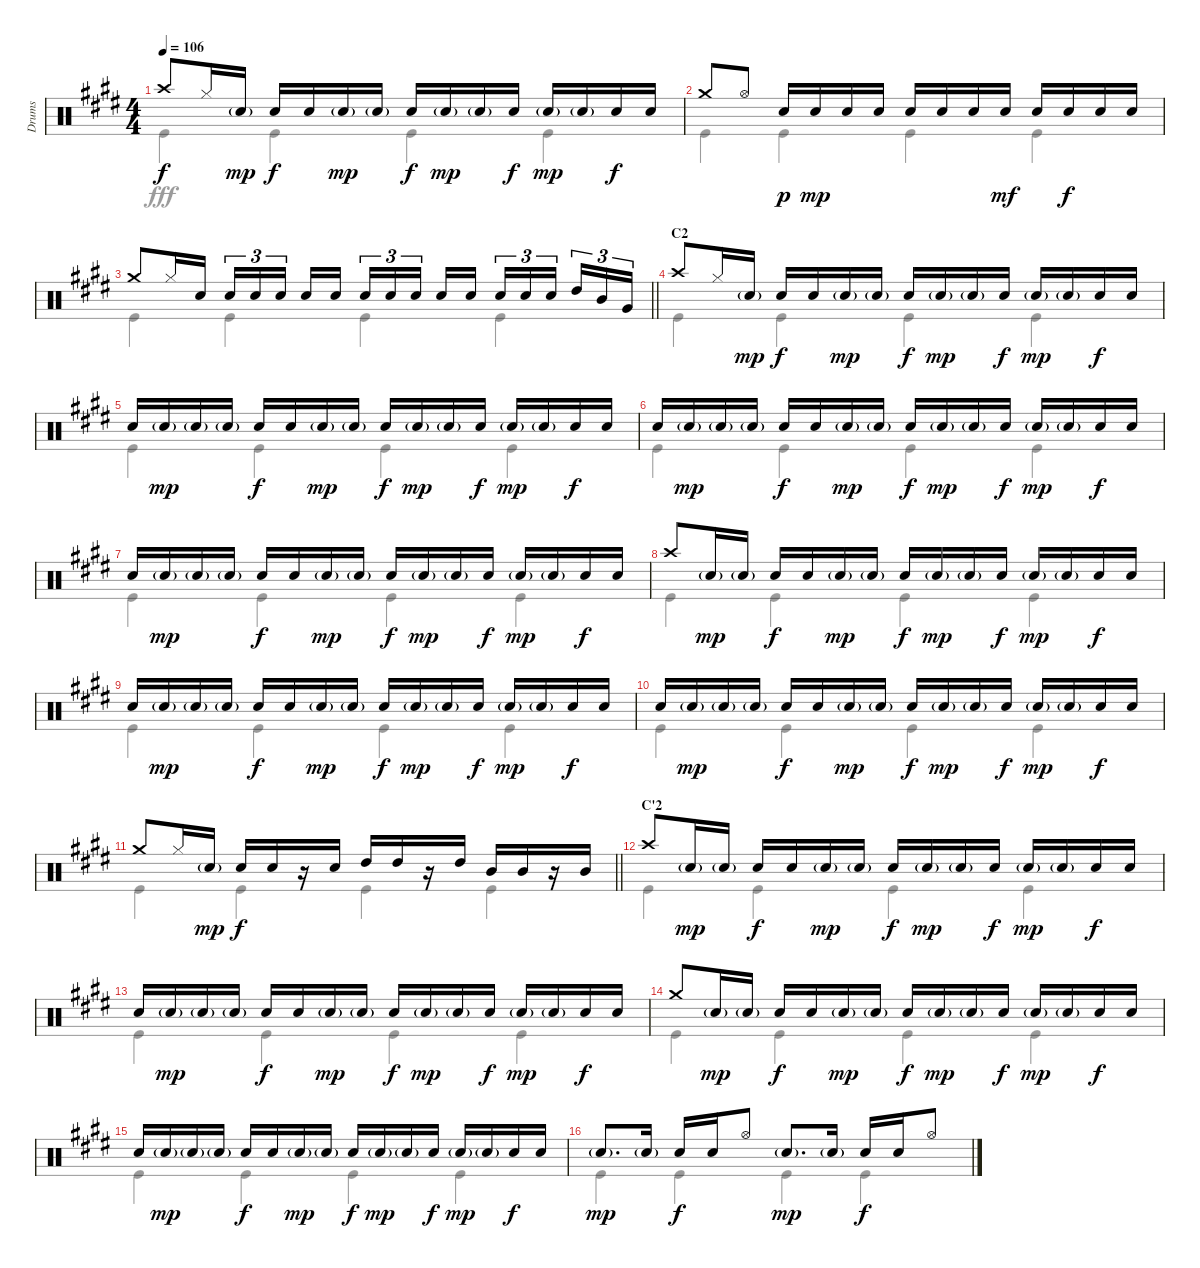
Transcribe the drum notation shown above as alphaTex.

\track ("Drums" "Drums") {instrument percussion}
\staff {score}
\articulation defaults
\voice
\ts (4 4)
\tempo 106
\clef neutral
\ks e "Crash high (hit)".8{dy f} "Hi-Hat (closed)".16 "Snare (hit) 2"{g}.16{dy mp} "Snare (hit) 2".16{dy f} "Snare (hit) 2".16 "Snare (hit) 2"{g}.16{dy mp} "Snare (hit) 2"{g}.16 "Snare (hit) 2".16{dy f} "Snare (hit) 2"{g}.16{dy mp} "Snare (hit) 2"{g}.16 "Snare (hit) 2".16{dy f} "Snare (hit) 2"{g}.16{dy mp} "Snare (hit) 2"{g}.16 "Snare (hit) 2".16{dy f} "Snare (hit) 2".16
|
"Crash medium (hit)".8 "Hi-Hat (open)".8 "Snare (hit) 2".16{dy p} "Snare (hit) 2".16{dy mp} "Snare (hit) 2".16 "Snare (hit) 2".16 "Snare (hit) 2".16 "Snare (hit) 2".16 "Snare (hit) 2".16 "Snare (hit) 2".16{dy mf} "Snare (hit) 2".16 "Snare (hit) 2".16{dy f} "Snare (hit) 2".16 "Snare (hit) 2".16 |
\barLineRight lightlight "Crash medium (hit)".8 "Hi-Hat (closed)".16 "Snare (hit) 2".16 "Snare (hit) 2".16{tu (3 2)} "Snare (hit) 2".16{tu (3 2)} "Snare (hit) 2".16{tu (3 2) beam splitsecondary} "Snare (hit) 2".16 "Snare (hit) 2".16 "Snare (hit) 2".16{tu (3 2)} "Snare (hit) 2".16{tu (3 2)} "Snare (hit) 2".16{tu (3 2) beam splitsecondary} "Snare (hit) 2".16 "Snare (hit) 2".16 "Snare (hit) 2".16{tu (3 2)} "Snare (hit) 2".16{tu (3 2)} "Snare (hit) 2".16{tu (3 2) beam splitsecondary} "High Tom (hit)".16{tu (3 2)} "Mid Tom (hit)".16{tu (3 2)} "Very Low Tom (hit)".16{tu (3 2)}
|
\section ("" "C2")
"Crash high (hit)".8 "Hi-Hat (closed)".16 "Snare (hit) 2"{g}.16{dy mp} "Snare (hit) 2".16{dy f} "Snare (hit) 2".16 "Snare (hit) 2"{g}.16{dy mp} "Snare (hit) 2"{g}.16 "Snare (hit) 2".16{dy f} "Snare (hit) 2"{g}.16{dy mp} "Snare (hit) 2"{g}.16 "Snare (hit) 2".16{dy f} "Snare (hit) 2"{g}.16{dy mp} "Snare (hit) 2"{g}.16 "Snare (hit) 2".16{dy f} "Snare (hit) 2".16 |
"Snare (hit) 2".16 "Snare (hit) 2"{g}.16{dy mp} "Snare (hit) 2"{g}.16 "Snare (hit) 2"{g}.16 "Snare (hit) 2".16{dy f} "Snare (hit) 2".16 "Snare (hit) 2"{g}.16{dy mp} "Snare (hit) 2"{g}.16 "Snare (hit) 2".16{dy f} "Snare (hit) 2"{g}.16{dy mp} "Snare (hit) 2"{g}.16 "Snare (hit) 2".16{dy f} "Snare (hit) 2"{g}.16{dy mp} "Snare (hit) 2"{g}.16 "Snare (hit) 2".16{dy f} "Snare (hit) 2".16 |
"Snare (hit) 2".16 "Snare (hit) 2"{g}.16{dy mp} "Snare (hit) 2"{g}.16 "Snare (hit) 2"{g}.16 "Snare (hit) 2".16{dy f} "Snare (hit) 2".16 "Snare (hit) 2"{g}.16{dy mp} "Snare (hit) 2"{g}.16 "Snare (hit) 2".16{dy f} "Snare (hit) 2"{g}.16{dy mp} "Snare (hit) 2"{g}.16 "Snare (hit) 2".16{dy f} "Snare (hit) 2"{g}.16{dy mp} "Snare (hit) 2"{g}.16 "Snare (hit) 2".16{dy f} "Snare (hit) 2".16 |
"Snare (hit) 2".16 "Snare (hit) 2"{g}.16{dy mp} "Snare (hit) 2"{g}.16 "Snare (hit) 2"{g}.16 "Snare (hit) 2".16{dy f} "Snare (hit) 2".16 "Snare (hit) 2"{g}.16{dy mp} "Snare (hit) 2"{g}.16 "Snare (hit) 2".16{dy f} "Snare (hit) 2"{g}.16{dy mp} "Snare (hit) 2"{g}.16 "Snare (hit) 2".16{dy f} "Snare (hit) 2"{g}.16{dy mp} "Snare (hit) 2"{g}.16 "Snare (hit) 2".16{dy f} "Snare (hit) 2".16 |
"Crash high (hit)".8 "Snare (hit) 2"{g}.16{dy mp} "Snare (hit) 2"{g}.16 "Snare (hit) 2".16{dy f} "Snare (hit) 2".16 "Snare (hit) 2"{g}.16{dy mp} "Snare (hit) 2"{g}.16 "Snare (hit) 2".16{dy f} "Snare (hit) 2"{g}.16{dy mp} "Snare (hit) 2"{g}.16 "Snare (hit) 2".16{dy f} "Snare (hit) 2"{g}.16{dy mp} "Snare (hit) 2"{g}.16 "Snare (hit) 2".16{dy f} "Snare (hit) 2".16 |
"Snare (hit) 2".16 "Snare (hit) 2"{g}.16{dy mp} "Snare (hit) 2"{g}.16 "Snare (hit) 2"{g}.16 "Snare (hit) 2".16{dy f} "Snare (hit) 2".16 "Snare (hit) 2"{g}.16{dy mp} "Snare (hit) 2"{g}.16 "Snare (hit) 2".16{dy f} "Snare (hit) 2"{g}.16{dy mp} "Snare (hit) 2"{g}.16 "Snare (hit) 2".16{dy f} "Snare (hit) 2"{g}.16{dy mp} "Snare (hit) 2"{g}.16 "Snare (hit) 2".16{dy f} "Snare (hit) 2".16 |
"Snare (hit) 2".16 "Snare (hit) 2"{g}.16{dy mp} "Snare (hit) 2"{g}.16 "Snare (hit) 2"{g}.16 "Snare (hit) 2".16{dy f} "Snare (hit) 2".16 "Snare (hit) 2"{g}.16{dy mp} "Snare (hit) 2"{g}.16 "Snare (hit) 2".16{dy f} "Snare (hit) 2"{g}.16{dy mp} "Snare (hit) 2"{g}.16 "Snare (hit) 2".16{dy f} "Snare (hit) 2"{g}.16{dy mp} "Snare (hit) 2"{g}.16 "Snare (hit) 2".16{dy f} "Snare (hit) 2".16 |
\barLineRight lightlight "Crash medium (hit)".8 "Hi-Hat (closed)".16 "Snare (hit) 2"{g}.16{dy mp} "Snare (hit) 2".16{dy f} "Snare (hit) 2".16
r.16 "Snare (hit) 2".16 "High Tom (hit)".16 "High Tom (hit)".16 r.16 "High Tom (hit)".16 "Mid Tom (hit)".16 "Mid Tom (hit)".16 r.16 "Mid Tom (hit)".16 |
\section ("" "C'2")
"Crash high (hit)".8 "Snare (hit) 2"{g}.16{dy mp} "Snare (hit) 2"{g}.16 "Snare (hit) 2".16{dy f} "Snare (hit) 2".16 "Snare (hit) 2"{g}.16{dy mp} "Snare (hit) 2"{g}.16 "Snare (hit) 2".16{dy f} "Snare (hit) 2"{g}.16{dy mp} "Snare (hit) 2"{g}.16 "Snare (hit) 2".16{dy f} "Snare (hit) 2"{g}.16{dy mp} "Snare (hit) 2"{g}.16 "Snare (hit) 2".16{dy f} "Snare (hit) 2".16 |
"Snare (hit) 2".16 "Snare (hit) 2"{g}.16{dy mp} "Snare (hit) 2"{g}.16 "Snare (hit) 2"{g}.16 "Snare (hit) 2".16{dy f} "Snare (hit) 2".16 "Snare (hit) 2"{g}.16{dy mp} "Snare (hit) 2"{g}.16 "Snare (hit) 2".16{dy f} "Snare (hit) 2"{g}.16{dy mp} "Snare (hit) 2"{g}.16 "Snare (hit) 2".16{dy f} "Snare (hit) 2"{g}.16{dy mp} "Snare (hit) 2"{g}.16 "Snare (hit) 2".16{dy f} "Snare (hit) 2".16 |
"Crash medium (hit)".8 "Snare (hit) 2"{g}.16{dy mp} "Snare (hit) 2"{g}.16 "Snare (hit) 2".16{dy f} "Snare (hit) 2".16 "Snare (hit) 2"{g}.16{dy mp} "Snare (hit) 2"{g}.16 "Snare (hit) 2".16{dy f} "Snare (hit) 2"{g}.16{dy mp} "Snare (hit) 2"{g}.16 "Snare (hit) 2".16{dy f} "Snare (hit) 2"{g}.16{dy mp} "Snare (hit) 2"{g}.16 "Snare (hit) 2".16{dy f} "Snare (hit) 2".16 |
"Snare (hit) 2".16 "Snare (hit) 2"{g}.16{dy mp} "Snare (hit) 2"{g}.16 "Snare (hit) 2"{g}.16 "Snare (hit) 2".16{dy f} "Snare (hit) 2".16 "Snare (hit) 2"{g}.16{dy mp} "Snare (hit) 2"{g}.16 "Snare (hit) 2".16{dy f} "Snare (hit) 2"{g}.16{dy mp} "Snare (hit) 2"{g}.16 "Snare (hit) 2".16{dy f} "Snare (hit) 2"{g}.16{dy mp} "Snare (hit) 2"{g}.16 "Snare (hit) 2".16{dy f} "Snare (hit) 2".16 |
"Snare (hit) 2"{g}.8{d dy mp} "Snare (hit) 2"{g}.16 "Snare (hit) 2".16{dy f} "Snare (hit) 2".16 "Hi-Hat (open)".8 "Snare (hit) 2"{g}.8{d dy mp} "Snare (hit) 2"{g}.16 "Snare (hit) 2".16{dy f} "Snare (hit) 2".16 "Hi-Hat (open)".8
\voice
\clef neutral
\ottava regular
\simile none
\ks e "Kick (hit)".4{dy fff} "Kick (hit)".4 "Kick (hit)".4 "Kick (hit)".4
|
"Kick (hit)".4 "Kick (hit)".4 "Kick (hit)".4 "Kick (hit)".4 |
\barLineRight lightlight "Kick (hit)".4 "Kick (hit)".4 "Kick (hit)".4 "Kick (hit)".4
|
"Kick (hit)".4 "Kick (hit)".4 "Kick (hit)".4 "Kick (hit)".4 |
"Kick (hit)".4 "Kick (hit)".4 "Kick (hit)".4 "Kick (hit)".4 |
"Kick (hit)".4 "Kick (hit)".4 "Kick (hit)".4 "Kick (hit)".4 |
"Kick (hit)".4 "Kick (hit)".4 "Kick (hit)".4 "Kick (hit)".4 |
"Kick (hit)".4 "Kick (hit)".4 "Kick (hit)".4 "Kick (hit)".4 |
"Kick (hit)".4 "Kick (hit)".4 "Kick (hit)".4 "Kick (hit)".4 |
"Kick (hit)".4 "Kick (hit)".4 "Kick (hit)".4 "Kick (hit)".4 |
\barLineRight lightlight "Kick (hit)".4 "Kick (hit)".4 "Kick (hit)".4 "Kick (hit)".4
|
"Kick (hit)".4 "Kick (hit)".4 "Kick (hit)".4 "Kick (hit)".4 |
"Kick (hit)".4 "Kick (hit)".4 "Kick (hit)".4 "Kick (hit)".4 |
"Kick (hit)".4 "Kick (hit)".4 "Kick (hit)".4 "Kick (hit)".4 |
"Kick (hit)".4 "Kick (hit)".4 "Kick (hit)".4 "Kick (hit)".4 |
"Kick (hit)".4 "Kick (hit)".4 "Kick (hit)".4 "Kick (hit)".4
